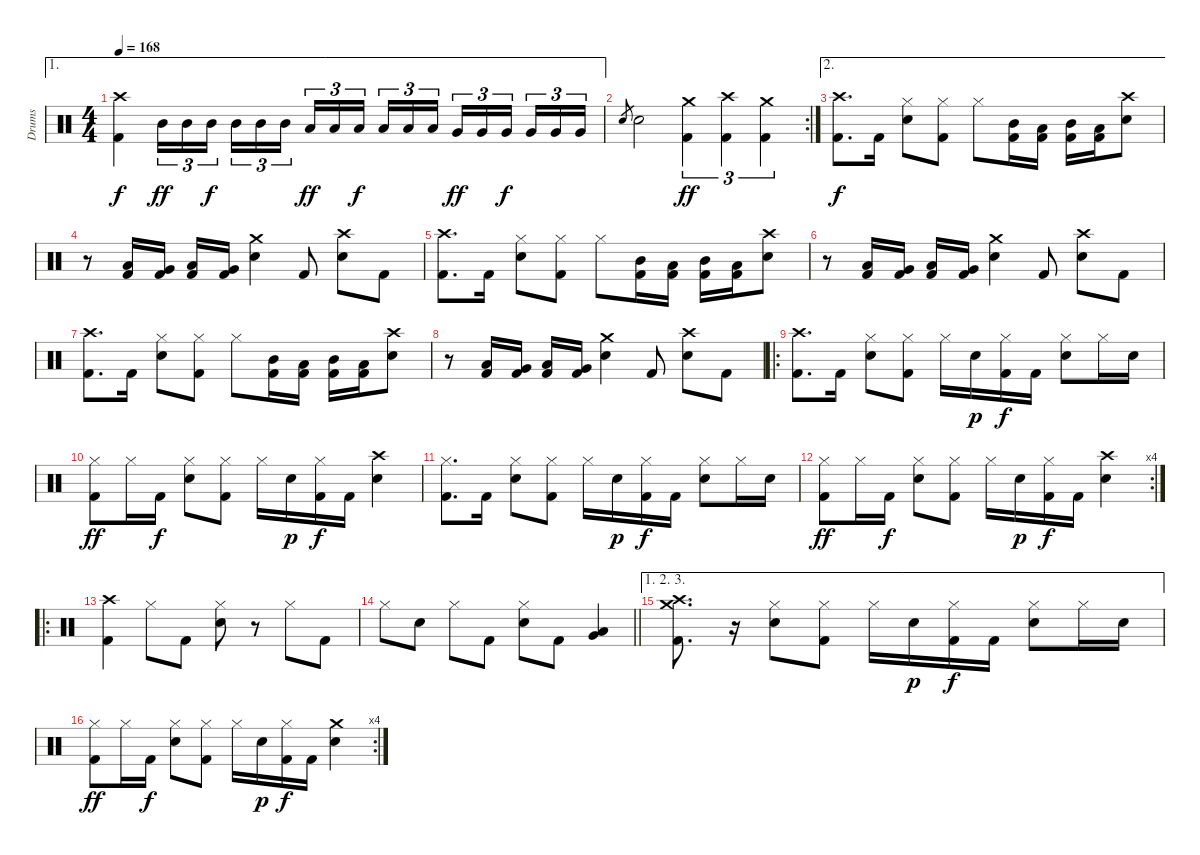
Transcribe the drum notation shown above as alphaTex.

\track ("Drums" "Drums") {instrument percussion}
\staff {score}
\articulation defaults
\ae 1
\ts (4 4)
\tempo 168
\clef neutral
\ks c
("Crash high (hit)" "Kick (hit) 2").4{dy f} "Mid Tom (hit)".16{tu (3 2) dy ff} "Mid Tom (hit)".16{tu (3 2)} "Mid Tom (hit)".16{tu (3 2) dy f beam splitsecondary} "Mid Tom (hit)".16{tu (3 2)} "Mid Tom (hit)".16{tu (3 2)} "Mid Tom (hit)".16{tu (3 2)} "Low Tom (hit)".16{tu (3 2) dy ff} "Low Tom (hit)".16{tu (3 2)} "Low Tom (hit)".16{tu (3 2) dy f beam splitsecondary} "Low Tom (hit)".16{tu (3 2)} "Low Tom (hit)".16{tu (3 2)} "Low Tom (hit)".16{tu (3 2)} "Very Low Tom (hit)".16{tu (3 2) dy ff} "Very Low Tom (hit)".16{tu (3 2)} "Very Low Tom (hit)".16{tu (3 2) dy f beam splitsecondary} "Very Low Tom (hit)".16{tu (3 2)} "Very Low Tom (hit)".16{tu (3 2)} "Very Low Tom (hit)".16{tu (3 2)} |
\rc 2 "Snare (hit) 2".8{gr} "Snare (hit) 2".2
("Crash medium (hit)" "Kick (hit) 2").4{tu (3 2) dy ff} ("Crash high (hit)" "Kick (hit) 2").4{tu (3 2)} ("Crash medium (hit)" "Kick (hit) 2").4{tu (3 2)} |
\ae 2
("Crash high (hit)" "Kick (hit) 2").8{d dy f} "Kick (hit) 2".16 ("Hi-Hat (closed)" "Snare (hit) 2").8 ("Hi-Hat (closed)" "Kick (hit) 2").8 "Hi-Hat (closed)".8 ("Mid Tom (hit)" "Kick (hit) 2").16 ("Low Tom (hit)" "Kick (hit) 2").16 ("Mid Tom (hit)" "Kick (hit) 2").16 ("Low Tom (hit)" "Kick (hit) 2").16 ("Crash high (hit)" "Snare (hit) 2").8 |
r.8 ("Low Tom (hit)" "Kick (hit) 2").16 ("Very Low Tom (hit)" "Kick (hit) 2").16 ("Low Tom (hit)" "Kick (hit) 2").16 ("Very Low Tom (hit)" "Kick (hit) 2").16 ("Crash medium (hit)" "Snare (hit) 2").4 "Kick (hit) 2".8 ("Crash high (hit)" "Snare (hit) 2").8 "Kick (hit) 2".8 |
("Crash high (hit)" "Kick (hit) 2").8{d} "Kick (hit) 2".16 ("Hi-Hat (closed)" "Snare (hit) 2").8 ("Hi-Hat (closed)" "Kick (hit) 2").8 "Hi-Hat (closed)".8 ("Mid Tom (hit)" "Kick (hit) 2").16 ("Low Tom (hit)" "Kick (hit) 2").16 ("Mid Tom (hit)" "Kick (hit) 2").16 ("Low Tom (hit)" "Kick (hit) 2").16 ("Crash high (hit)" "Snare (hit) 2").8 |
r.8 ("Low Tom (hit)" "Kick (hit) 2").16 ("Very Low Tom (hit)" "Kick (hit) 2").16 ("Low Tom (hit)" "Kick (hit) 2").16 ("Very Low Tom (hit)" "Kick (hit) 2").16 ("Crash medium (hit)" "Snare (hit) 2").4 "Kick (hit) 2".8 ("Crash high (hit)" "Snare (hit) 2").8 "Kick (hit) 2".8 |
("Crash high (hit)" "Kick (hit) 2").8{d} "Kick (hit) 2".16 ("Hi-Hat (closed)" "Snare (hit) 2").8 ("Hi-Hat (closed)" "Kick (hit) 2").8 "Hi-Hat (closed)".8 ("Mid Tom (hit)" "Kick (hit) 2").16 ("Low Tom (hit)" "Kick (hit) 2").16 ("Mid Tom (hit)" "Kick (hit) 2").16 ("Low Tom (hit)" "Kick (hit) 2").16 ("Crash high (hit)" "Snare (hit) 2").8 |
r.8 ("Low Tom (hit)" "Kick (hit) 2").16 ("Very Low Tom (hit)" "Kick (hit) 2").16 ("Low Tom (hit)" "Kick (hit) 2").16 ("Very Low Tom (hit)" "Kick (hit) 2").16 ("Crash medium (hit)" "Snare (hit) 2").4 "Kick (hit) 2".8 ("Crash high (hit)" "Snare (hit) 2").8 "Kick (hit) 2".8 |
\ro
("Crash high (hit)" "Kick (hit) 2").8{d} "Kick (hit) 2".16 ("Hi-Hat (closed)" "Snare (hit) 2").8 ("Hi-Hat (closed)" "Kick (hit) 2").8 "Hi-Hat (closed)".16 "Snare (hit) 2".16{dy p} ("Hi-Hat (closed)" "Kick (hit) 2").16{dy f} "Kick (hit) 2".16 ("Hi-Hat (closed)" "Snare (hit) 2").8 "Hi-Hat (closed)".16 "Snare (hit) 2".16 |
("Hi-Hat (closed)" "Kick (hit) 2").8{dy ff} "Hi-Hat (closed)".16 "Kick (hit) 2".16{dy f} ("Hi-Hat (closed)" "Snare (hit) 2").8 ("Hi-Hat (closed)" "Kick (hit) 2").8 "Hi-Hat (closed)".16 "Snare (hit) 2".16{dy p} ("Hi-Hat (closed)" "Kick (hit) 2").16{dy f} "Kick (hit) 2".16 ("Crash high (hit)" "Snare (hit) 2").4 |
("Hi-Hat (closed)" "Kick (hit) 2").8{d} "Kick (hit) 2".16 ("Hi-Hat (closed)" "Snare (hit) 2").8 ("Hi-Hat (closed)" "Kick (hit) 2").8 "Hi-Hat (closed)".16 "Snare (hit) 2".16{dy p} ("Hi-Hat (closed)" "Kick (hit) 2").16{dy f} "Kick (hit) 2".16 ("Hi-Hat (closed)" "Snare (hit) 2").8 "Hi-Hat (closed)".16 "Snare (hit) 2".16 |
\rc 4
("Hi-Hat (closed)" "Kick (hit) 2").8{dy ff} "Hi-Hat (closed)".16 "Kick (hit) 2".16{dy f} ("Hi-Hat (closed)" "Snare (hit) 2").8 ("Hi-Hat (closed)" "Kick (hit) 2").8 "Hi-Hat (closed)".16 "Snare (hit) 2".16{dy p} ("Hi-Hat (closed)" "Kick (hit) 2").16{dy f} "Kick (hit) 2".16 ("Crash high (hit)" "Snare (hit) 2").4 |
\ro
("Crash high (hit)" "Kick (hit) 2").4 "Hi-Hat (closed)".8 "Kick (hit) 2".8 ("Hi-Hat (closed)" "Snare (hit) 2").8 r.8 "Hi-Hat (closed)".8 "Kick (hit) 2".8 |
\barLineRight lightlight "Hi-Hat (closed)".8 "Snare (hit) 2".8 "Hi-Hat (closed)".8 "Kick (hit) 2".8
("Hi-Hat (closed)" "Snare (hit) 2").8 "Kick (hit) 2".8 ("Low Floor Tom (hit)" "Very Low Tom (hit)").4 |
\ae (1 2 3)
("Crash high (hit)" "Crash medium (hit)" "Kick (hit) 2").8{d} r.16 ("Hi-Hat (closed)" "Snare (hit) 2").8 ("Hi-Hat (closed)" "Kick (hit) 2").8 "Hi-Hat (closed)".16 "Snare (hit) 2".16{dy p} ("Hi-Hat (closed)" "Kick (hit) 2").16{dy f} "Kick (hit) 2".16 ("Hi-Hat (closed)" "Snare (hit) 2").8 "Hi-Hat (closed)".16 "Snare (hit) 2".16 |
\rc 4
("Hi-Hat (closed)" "Kick (hit) 2").8{dy ff} "Hi-Hat (closed)".16 "Kick (hit) 2".16{dy f} ("Hi-Hat (closed)" "Snare (hit) 2").8 ("Hi-Hat (closed)" "Kick (hit) 2").8 "Hi-Hat (closed)".16 "Snare (hit) 2".16{dy p} ("Hi-Hat (closed)" "Kick (hit) 2").16{dy f} "Kick (hit) 2".16 ("Crash medium (hit)" "Snare (hit) 2").4
